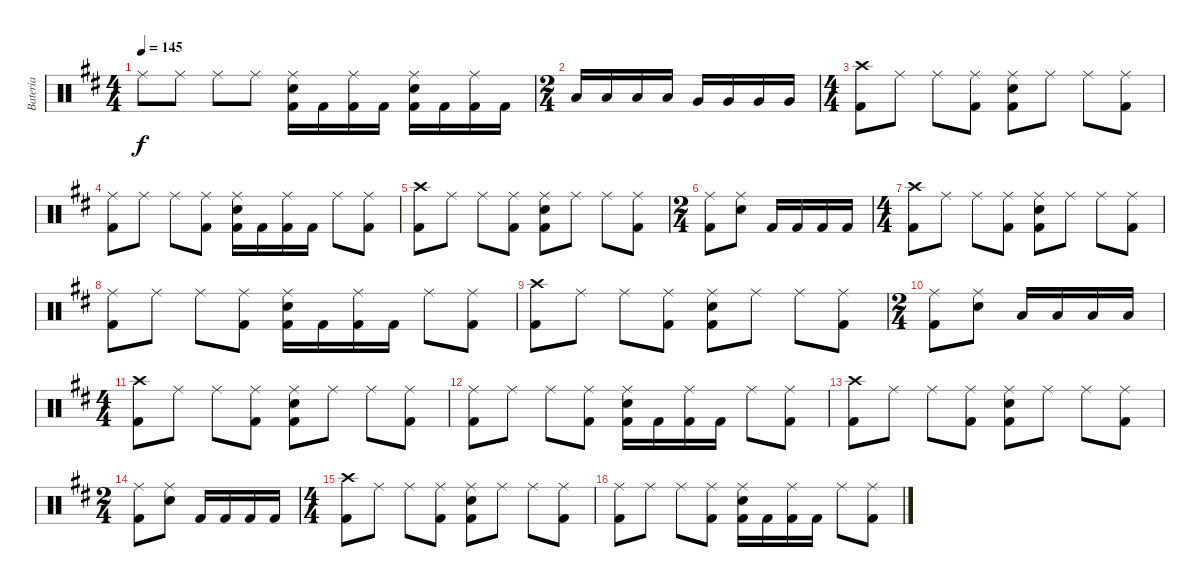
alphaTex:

\track ("Bateria" "Bateria") {instrument percussion}
\staff {score}
\articulation defaults
\ts (4 4)
\tempo 145
\clef neutral
\ks d "Ride (middle)".8{dy f} "Ride (middle)".8 "Ride (middle)".8 "Ride (middle)".8
("Ride (middle)" "Snare (hit) 2" "Kick (hit) 2").16 "Kick (hit) 2".16 ("Ride (middle)" "Kick (hit) 2").16 "Kick (hit) 2".16 ("Ride (middle)" "Snare (hit) 2" "Kick (hit) 2").16 "Kick (hit) 2".16 ("Ride (middle)" "Kick (hit) 2").16 "Kick (hit) 2".16 |
\ts (2 4)
"Low Tom (hit)".16 "Low Tom (hit)".16 "Low Tom (hit)".16 "Low Tom (hit)".16 "Very Low Tom (hit)".16 "Very Low Tom (hit)".16 "Very Low Tom (hit)".16 "Very Low Tom (hit)".16 |
\ts (4 4)
("Crash high (hit)" "Kick (hit) 2").8 "Ride (middle)".8 "Ride (middle)".8 ("Ride (middle)" "Kick (hit) 2").8 ("Ride (middle)" "Snare (hit) 2" "Kick (hit) 2").8 "Ride (middle)".8 "Ride (middle)".8 ("Ride (middle)" "Kick (hit) 2").8 |
("Ride (middle)" "Kick (hit) 2").8 "Ride (middle)".8 "Ride (middle)".8 ("Ride (middle)" "Kick (hit) 2").8 ("Ride (middle)" "Snare (hit) 2" "Kick (hit) 2").16 "Kick (hit) 2".16 ("Ride (middle)" "Kick (hit) 2").16 "Kick (hit) 2".16 "Ride (middle)".8 ("Ride (middle)" "Kick (hit) 2").8 |
("Crash high (hit)" "Kick (hit) 2").8 "Ride (middle)".8 "Ride (middle)".8 ("Ride (middle)" "Kick (hit) 2").8 ("Ride (middle)" "Snare (hit) 2" "Kick (hit) 2").8 "Ride (middle)".8 "Ride (middle)".8 ("Ride (middle)" "Kick (hit) 2").8 |
\ts (2 4)
("Ride (middle)" "Kick (hit) 2").8 ("Ride (middle)" "Snare (hit) 2").8 "Kick (hit) 2".16 "Kick (hit) 2".16 "Kick (hit) 2".16 "Kick (hit) 2".16 |
\ts (4 4)
("Crash high (hit)" "Kick (hit) 2").8 "Ride (middle)".8 "Ride (middle)".8 ("Ride (middle)" "Kick (hit) 2").8 ("Ride (middle)" "Snare (hit) 2" "Kick (hit) 2").8 "Ride (middle)".8 "Ride (middle)".8 ("Ride (middle)" "Kick (hit) 2").8 |
("Ride (middle)" "Kick (hit) 2").8 "Ride (middle)".8 "Ride (middle)".8 ("Ride (middle)" "Kick (hit) 2").8 ("Ride (middle)" "Snare (hit) 2" "Kick (hit) 2").16 "Kick (hit) 2".16 ("Ride (middle)" "Kick (hit) 2").16 "Kick (hit) 2".16 "Ride (middle)".8 ("Ride (middle)" "Kick (hit) 2").8 |
("Crash high (hit)" "Kick (hit) 2").8 "Ride (middle)".8 "Ride (middle)".8 ("Ride (middle)" "Kick (hit) 2").8 ("Ride (middle)" "Snare (hit) 2" "Kick (hit) 2").8 "Ride (middle)".8 "Ride (middle)".8 ("Ride (middle)" "Kick (hit) 2").8 |
\ts (2 4)
("Ride (middle)" "Kick (hit) 2").8 ("Ride (middle)" "Snare (hit) 2").8 "Low Tom (hit)".16 "Low Tom (hit)".16 "Low Tom (hit)".16 "Low Tom (hit)".16 |
\ts (4 4)
("Crash high (hit)" "Kick (hit) 2").8 "Ride (middle)".8 "Ride (middle)".8 ("Ride (middle)" "Kick (hit) 2").8 ("Ride (middle)" "Snare (hit) 2" "Kick (hit) 2").8 "Ride (middle)".8 "Ride (middle)".8 ("Ride (middle)" "Kick (hit) 2").8 |
("Ride (middle)" "Kick (hit) 2").8 "Ride (middle)".8 "Ride (middle)".8 ("Ride (middle)" "Kick (hit) 2").8 ("Ride (middle)" "Snare (hit) 2" "Kick (hit) 2").16 "Kick (hit) 2".16 ("Ride (middle)" "Kick (hit) 2").16 "Kick (hit) 2".16 "Ride (middle)".8 ("Ride (middle)" "Kick (hit) 2").8 |
("Crash high (hit)" "Kick (hit) 2").8 "Ride (middle)".8 "Ride (middle)".8 ("Ride (middle)" "Kick (hit) 2").8 ("Ride (middle)" "Snare (hit) 2" "Kick (hit) 2").8 "Ride (middle)".8 "Ride (middle)".8 ("Ride (middle)" "Kick (hit) 2").8 |
\ts (2 4)
("Ride (middle)" "Kick (hit) 2").8 ("Ride (middle)" "Snare (hit) 2").8 "Kick (hit) 2".16 "Kick (hit) 2".16 "Kick (hit) 2".16 "Kick (hit) 2".16 |
\ts (4 4)
("Crash high (hit)" "Kick (hit) 2").8 "Ride (middle)".8 "Ride (middle)".8 ("Ride (middle)" "Kick (hit) 2").8 ("Ride (middle)" "Snare (hit) 2" "Kick (hit) 2").8 "Ride (middle)".8 "Ride (middle)".8 ("Ride (middle)" "Kick (hit) 2").8 |
("Ride (middle)" "Kick (hit) 2").8 "Ride (middle)".8 "Ride (middle)".8 ("Ride (middle)" "Kick (hit) 2").8 ("Ride (middle)" "Snare (hit) 2" "Kick (hit) 2").16 "Kick (hit) 2".16 ("Ride (middle)" "Kick (hit) 2").16 "Kick (hit) 2".16 "Ride (middle)".8 ("Ride (middle)" "Kick (hit) 2").8
